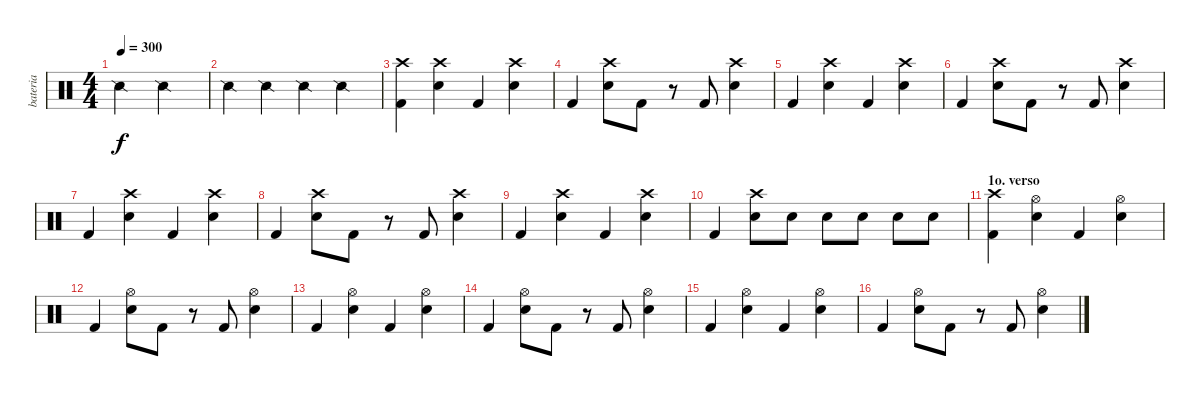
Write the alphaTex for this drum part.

\track ("bateria" "bateria") {instrument percussion}
\staff {score}
\articulation defaults
\ts (4 4)
\tempo 300
\clef neutral
\ks c "Snare (side stick) 2".2{dy f} "Snare (side stick) 2".2
|
"Snare (side stick) 2".4 "Snare (side stick) 2".4 "Snare (side stick) 2".4 "Snare (side stick) 2".4 |
("Crash high (hit)" "Kick (hit) 2").4 ("Crash high (hit)" "Electric Snare (hit)").4 "Kick (hit) 2".4 ("Crash high (hit)" "Electric Snare (hit)").4 |
"Kick (hit) 2".4 ("Crash high (hit)" "Electric Snare (hit)").8 "Kick (hit) 2".8 r.8 "Kick (hit) 2".8 ("Crash high (hit)" "Electric Snare (hit)").4 |
"Kick (hit) 2".4 ("Crash high (hit)" "Electric Snare (hit)").4 "Kick (hit) 2".4 ("Crash high (hit)" "Electric Snare (hit)").4 |
"Kick (hit) 2".4 ("Crash high (hit)" "Electric Snare (hit)").8 "Kick (hit) 2".8 r.8 "Kick (hit) 2".8 ("Crash high (hit)" "Electric Snare (hit)").4 |
"Kick (hit) 2".4 ("Crash high (hit)" "Electric Snare (hit)").4 "Kick (hit) 2".4 ("Crash high (hit)" "Electric Snare (hit)").4 |
"Kick (hit) 2".4 ("Crash high (hit)" "Electric Snare (hit)").8 "Kick (hit) 2".8 r.8 "Kick (hit) 2".8 ("Crash high (hit)" "Electric Snare (hit)").4 |
"Kick (hit) 2".4 ("Crash high (hit)" "Electric Snare (hit)").4 "Kick (hit) 2".4 ("Crash high (hit)" "Electric Snare (hit)").4 |
"Kick (hit) 2".4 ("Crash high (hit)" "Electric Snare (hit)").8 "Electric Snare (hit)".8 "Electric Snare (hit)".8 "Electric Snare (hit)".8 "Electric Snare (hit)".8 "Electric Snare (hit)".8 |
\section ("" "1o. verso")
("Crash high (hit)" "Kick (hit) 2").4 ("Electric Snare (hit)" "Hi-Hat (open)").4 "Kick (hit) 2".4 ("Electric Snare (hit)" "Hi-Hat (open)").4 |
"Kick (hit) 2".4 ("Electric Snare (hit)" "Hi-Hat (open)").8 "Kick (hit) 2".8 r.8 "Kick (hit) 2".8 ("Electric Snare (hit)" "Hi-Hat (open)").4 |
"Kick (hit) 2".4 ("Electric Snare (hit)" "Hi-Hat (open)").4 "Kick (hit) 2".4 ("Electric Snare (hit)" "Hi-Hat (open)").4 |
"Kick (hit) 2".4 ("Electric Snare (hit)" "Hi-Hat (open)").8 "Kick (hit) 2".8 r.8 "Kick (hit) 2".8 ("Electric Snare (hit)" "Hi-Hat (open)").4 |
"Kick (hit) 2".4 ("Electric Snare (hit)" "Hi-Hat (open)").4 "Kick (hit) 2".4 ("Electric Snare (hit)" "Hi-Hat (open)").4 |
"Kick (hit) 2".4 ("Electric Snare (hit)" "Hi-Hat (open)").8 "Kick (hit) 2".8 r.8 "Kick (hit) 2".8 ("Electric Snare (hit)" "Hi-Hat (open)").4
